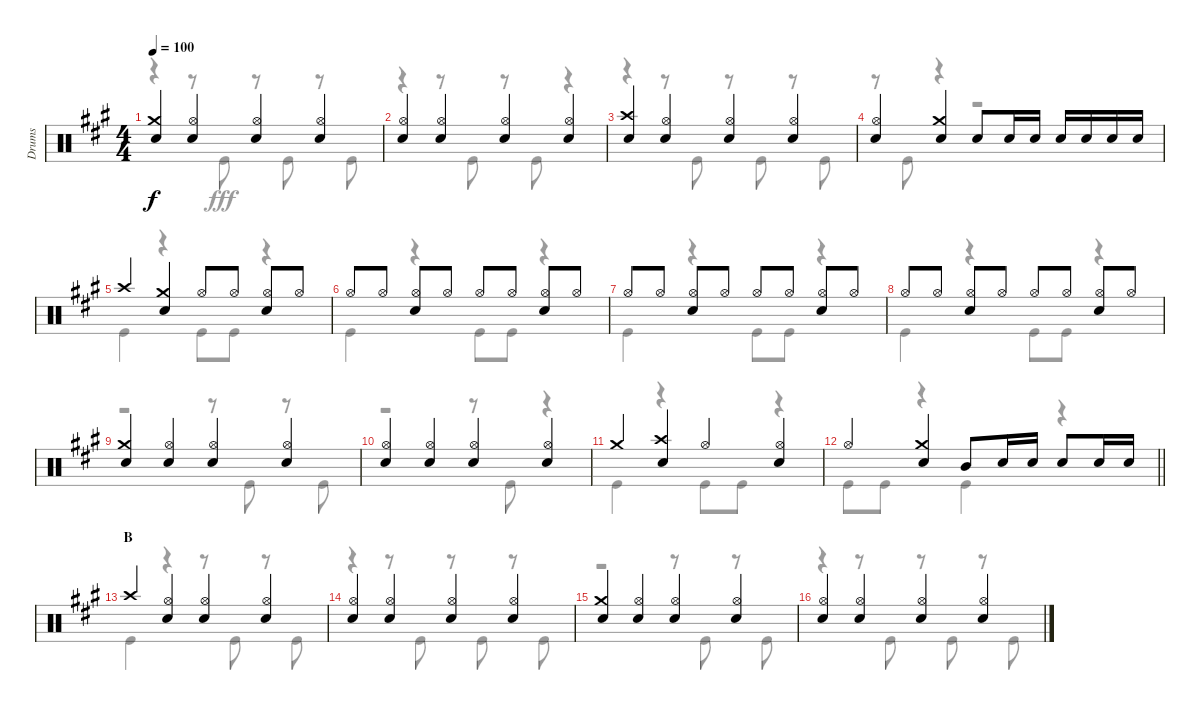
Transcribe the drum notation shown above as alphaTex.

\track ("Drums" "Drums") {instrument percussion}
\staff {score}
\articulation defaults
\voice
\ts (4 4)
\tempo 100
\clef neutral
\ks a
("Crash medium (hit)" "Snare (hit) 2").4{dy f} ("Hi-Hat (open)" "Snare (hit) 2").4 ("Hi-Hat (open)" "Snare (hit) 2").4 ("Hi-Hat (open)" "Snare (hit) 2").4 |
("Hi-Hat (open)" "Snare (hit) 2").4 ("Hi-Hat (open)" "Snare (hit) 2").4 ("Hi-Hat (open)" "Snare (hit) 2").4 ("Hi-Hat (open)" "Snare (hit) 2").4 |
("Crash high (hit)" "Snare (hit) 2").4 ("Hi-Hat (open)" "Snare (hit) 2").4 ("Hi-Hat (open)" "Snare (hit) 2").4 ("Hi-Hat (open)" "Snare (hit) 2").4 |
("Hi-Hat (open)" "Snare (hit) 2").4 ("Crash medium (hit)" "Snare (hit) 2").4 "Snare (hit) 2".8 "Snare (hit) 2".16 "Snare (hit) 2".16 "Snare (hit) 2".16 "Snare (hit) 2".16 "Snare (hit) 2".16 "Snare (hit) 2".16 |
"Crash high (hit)".4 ("Crash medium (hit)" "Snare (hit) 2").4 "Hi-Hat (open)".8 "Hi-Hat (open)".8 ("Hi-Hat (open)" "Snare (hit) 2").8 "Hi-Hat (open)".8 |
"Hi-Hat (open)".8 "Hi-Hat (open)".8 ("Hi-Hat (open)" "Snare (hit) 2").8 "Hi-Hat (open)".8 "Hi-Hat (open)".8 "Hi-Hat (open)".8 ("Hi-Hat (open)" "Snare (hit) 2").8 "Hi-Hat (open)".8 |
"Hi-Hat (open)".8 "Hi-Hat (open)".8 ("Hi-Hat (open)" "Snare (hit) 2").8 "Hi-Hat (open)".8 "Hi-Hat (open)".8 "Hi-Hat (open)".8 ("Hi-Hat (open)" "Snare (hit) 2").8 "Hi-Hat (open)".8 |
"Hi-Hat (open)".8 "Hi-Hat (open)".8 ("Hi-Hat (open)" "Snare (hit) 2").8 "Hi-Hat (open)".8 "Hi-Hat (open)".8 "Hi-Hat (open)".8 ("Hi-Hat (open)" "Snare (hit) 2").8 "Hi-Hat (open)".8 |
("Crash medium (hit)" "Snare (hit) 2").4 ("Hi-Hat (open)" "Snare (hit) 2").4 ("Hi-Hat (open)" "Snare (hit) 2").4 ("Hi-Hat (open)" "Snare (hit) 2").4 |
("Hi-Hat (open)" "Snare (hit) 2").4 ("Hi-Hat (open)" "Snare (hit) 2").4 ("Hi-Hat (open)" "Snare (hit) 2").4 ("Hi-Hat (open)" "Snare (hit) 2").4 |
"Crash medium (hit)".4 ("Crash high (hit)" "Snare (hit) 2").4 "Hi-Hat (open)".4 ("Hi-Hat (open)" "Snare (hit) 2").4 |
\barLineRight lightlight "Hi-Hat (open)".4
("Crash medium (hit)" "Snare (hit) 2").4 "Mid Tom (hit)".8 "Snare (hit) 2".16 "Snare (hit) 2".16 "Snare (hit) 2".8 "Snare (hit) 2".16 "Snare (hit) 2".16 |
\section ("" "B")
"Crash high (hit)".4 ("Hi-Hat (open)" "Snare (hit) 2").4 ("Hi-Hat (open)" "Snare (hit) 2").4 ("Hi-Hat (open)" "Snare (hit) 2").4 |
("Hi-Hat (open)" "Snare (hit) 2").4 ("Hi-Hat (open)" "Snare (hit) 2").4 ("Hi-Hat (open)" "Snare (hit) 2").4 ("Hi-Hat (open)" "Snare (hit) 2").4 |
("Crash medium (hit)" "Snare (hit) 2").4 ("Hi-Hat (open)" "Snare (hit) 2").4 ("Hi-Hat (open)" "Snare (hit) 2").4 ("Hi-Hat (open)" "Snare (hit) 2").4 |
("Hi-Hat (open)" "Snare (hit) 2").4 ("Hi-Hat (open)" "Snare (hit) 2").4 ("Hi-Hat (open)" "Snare (hit) 2").4 ("Hi-Hat (open)" "Snare (hit) 2").4
\voice
\clef neutral
\ottava regular
\simile none
\ks a
r.4{dy fff} r.8 "Kick (hit)".8 r.8 "Kick (hit)".8 r.8 "Kick (hit)".8 |
r.4 r.8 "Kick (hit)".8 r.8 "Kick (hit)".8 r.4 |
r.4 r.8 "Kick (hit)".8 r.8 "Kick (hit)".8 r.8 "Kick (hit)".8 |
r.8 "Kick (hit)".8 r.4 r.2 |
"Kick (hit)".4 r.4 "Kick (hit)".8 "Kick (hit)".8 r.4 |
"Kick (hit)".4 r.4 "Kick (hit)".8 "Kick (hit)".8 r.4 |
"Kick (hit)".4 r.4 "Kick (hit)".8 "Kick (hit)".8 r.4 |
"Kick (hit)".4 r.4 "Kick (hit)".8 "Kick (hit)".8 r.4 |
r.2 r.8 "Kick (hit)".8 r.8 "Kick (hit)".8 |
r.2 r.8 "Kick (hit)".8 r.4 |
"Kick (hit)".4 r.4 "Kick (hit)".8 "Kick (hit)".8 r.4 |
\barLineRight lightlight "Kick (hit)".8 "Kick (hit)".8
r.4 "Kick (hit)".4 r.4 |
"Kick (hit)".4 r.4 r.8 "Kick (hit)".8 r.8 "Kick (hit)".8 |
r.4 r.8 "Kick (hit)".8 r.8 "Kick (hit)".8 r.8 "Kick (hit)".8 |
r.2 r.8 "Kick (hit)".8 r.8 "Kick (hit)".8 |
r.4 r.8 "Kick (hit)".8 r.8 "Kick (hit)".8 r.8 "Kick (hit)".8
